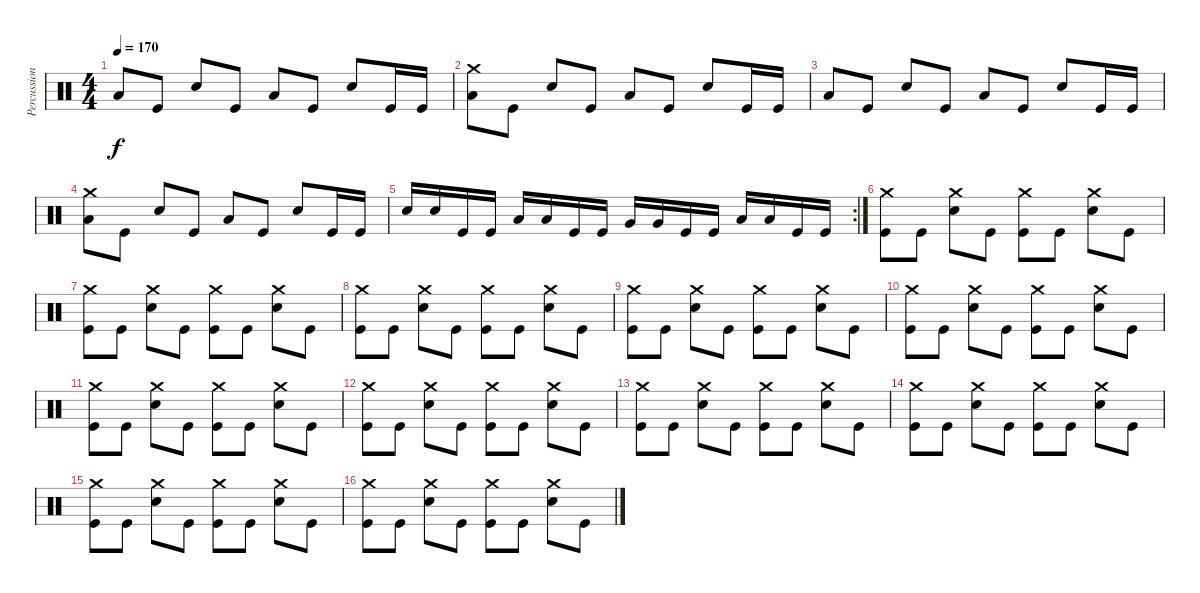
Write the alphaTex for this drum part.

\track ("Percussion" "Percussion") {instrument percussion}
\staff {score}
\articulation defaults
\ts (4 4)
\tempo 170
\clef neutral
\ks c "Low Floor Tom (hit)".8{dy f} "Kick (hit)".8 "Snare (hit) 2".8 "Kick (hit)".8 "Low Floor Tom (hit)".8 "Kick (hit)".8 "Snare (hit) 2".8 "Kick (hit)".16 "Kick (hit)".16
|
("Crash medium (hit)" "Low Floor Tom (hit)").8 "Kick (hit)".8 "Snare (hit) 2".8 "Kick (hit)".8 "Low Floor Tom (hit)".8 "Kick (hit)".8 "Snare (hit) 2".8 "Kick (hit)".16 "Kick (hit)".16 |
"Low Floor Tom (hit)".8 "Kick (hit)".8 "Snare (hit) 2".8 "Kick (hit)".8 "Low Floor Tom (hit)".8 "Kick (hit)".8 "Snare (hit) 2".8 "Kick (hit)".16 "Kick (hit)".16 |
("Crash medium (hit)" "Low Floor Tom (hit)").8 "Kick (hit)".8 "Snare (hit) 2".8 "Kick (hit)".8 "Low Floor Tom (hit)".8 "Kick (hit)".8 "Snare (hit) 2".8 "Kick (hit)".16 "Kick (hit)".16 |
\rc 2 "Snare (hit) 2".16 "Snare (hit) 2".16 "Kick (hit)".16 "Kick (hit)".16 "Low Tom (hit)".16 "Low Tom (hit)".16 "Kick (hit)".16 "Kick (hit)".16 "Very Low Tom (hit)".16 "Very Low Tom (hit)".16 "Kick (hit)".16 "Kick (hit)".16 "Low Floor Tom (hit)".16 "Low Floor Tom (hit)".16 "Kick (hit)".16 "Kick (hit)".16
|
("Crash medium (hit)" "Kick (hit)").8 "Kick (hit)".8 ("Crash medium (hit)" "Snare (hit) 2").8 "Kick (hit)".8 ("Crash medium (hit)" "Kick (hit)").8 "Kick (hit)".8 ("Crash medium (hit)" "Snare (hit) 2").8 "Kick (hit)".8 |
("Crash medium (hit)" "Kick (hit)").8 "Kick (hit)".8 ("Crash medium (hit)" "Snare (hit) 2").8 "Kick (hit)".8 ("Crash medium (hit)" "Kick (hit)").8 "Kick (hit)".8 ("Crash medium (hit)" "Snare (hit) 2").8 "Kick (hit)".8 |
("Crash medium (hit)" "Kick (hit)").8 "Kick (hit)".8 ("Crash medium (hit)" "Snare (hit) 2").8 "Kick (hit)".8 ("Crash medium (hit)" "Kick (hit)").8 "Kick (hit)".8 ("Crash medium (hit)" "Snare (hit) 2").8 "Kick (hit)".8 |
("Crash medium (hit)" "Kick (hit)").8 "Kick (hit)".8 ("Crash medium (hit)" "Snare (hit) 2").8 "Kick (hit)".8 ("Crash medium (hit)" "Kick (hit)").8 "Kick (hit)".8 ("Crash medium (hit)" "Snare (hit) 2").8 "Kick (hit)".8 |
("Crash medium (hit)" "Kick (hit)").8 "Kick (hit)".8 ("Crash medium (hit)" "Snare (hit) 2").8 "Kick (hit)".8 ("Crash medium (hit)" "Kick (hit)").8 "Kick (hit)".8 ("Crash medium (hit)" "Snare (hit) 2").8 "Kick (hit)".8 |
("Crash medium (hit)" "Kick (hit)").8 "Kick (hit)".8 ("Crash medium (hit)" "Snare (hit) 2").8 "Kick (hit)".8 ("Crash medium (hit)" "Kick (hit)").8 "Kick (hit)".8 ("Crash medium (hit)" "Snare (hit) 2").8 "Kick (hit)".8 |
("Crash medium (hit)" "Kick (hit)").8 "Kick (hit)".8 ("Crash medium (hit)" "Snare (hit) 2").8 "Kick (hit)".8 ("Crash medium (hit)" "Kick (hit)").8 "Kick (hit)".8 ("Crash medium (hit)" "Snare (hit) 2").8 "Kick (hit)".8 |
("Crash medium (hit)" "Kick (hit)").8 "Kick (hit)".8 ("Crash medium (hit)" "Snare (hit) 2").8 "Kick (hit)".8 ("Crash medium (hit)" "Kick (hit)").8 "Kick (hit)".8 ("Crash medium (hit)" "Snare (hit) 2").8 "Kick (hit)".8 |
("Crash medium (hit)" "Kick (hit)").8 "Kick (hit)".8 ("Crash medium (hit)" "Snare (hit) 2").8 "Kick (hit)".8 ("Crash medium (hit)" "Kick (hit)").8 "Kick (hit)".8 ("Crash medium (hit)" "Snare (hit) 2").8 "Kick (hit)".8 |
("Crash medium (hit)" "Kick (hit)").8 "Kick (hit)".8 ("Crash medium (hit)" "Snare (hit) 2").8 "Kick (hit)".8 ("Crash medium (hit)" "Kick (hit)").8 "Kick (hit)".8 ("Crash medium (hit)" "Snare (hit) 2").8 "Kick (hit)".8 |
("Crash medium (hit)" "Kick (hit)").8 "Kick (hit)".8 ("Crash medium (hit)" "Snare (hit) 2").8 "Kick (hit)".8 ("Crash medium (hit)" "Kick (hit)").8 "Kick (hit)".8 ("Crash medium (hit)" "Snare (hit) 2").8 "Kick (hit)".8
